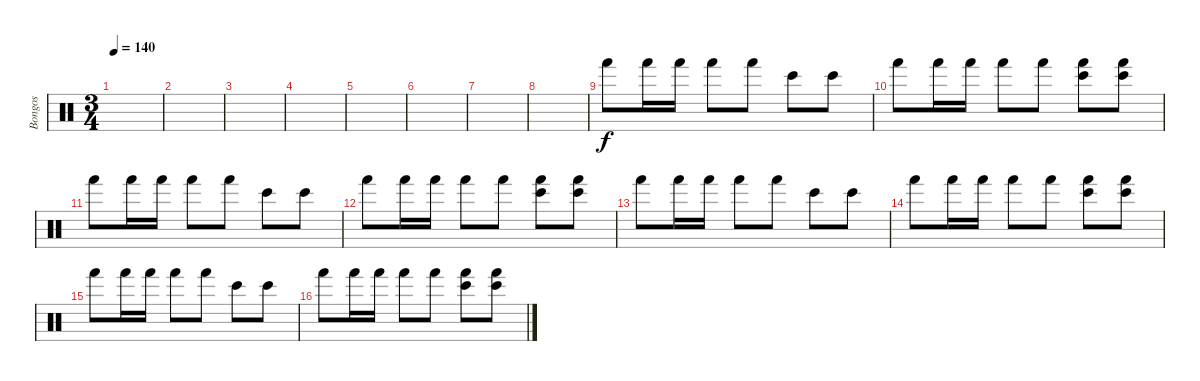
\track ("Bongos" "Bongos") {instrument percussion}
\staff {score}
\articulation defaults
\ts (3 4)
\tempo 140
\clef neutral
\ks c
|
|
|
|
|
|
|
|
"Hand (hit)".8 "Hand (hit)".16 "Hand (hit)".16 "Hand (hit)".8 "Hand (hit)".8 "Bongo High (hit)".8 "Bongo High (hit)".8 |
"Hand (hit)".8 "Hand (hit)".16 "Hand (hit)".16 "Hand (hit)".8 "Hand (hit)".8 ("Bongo High (hit)" "Hand (hit)").8 ("Bongo High (hit)" "Hand (hit)").8 |
"Hand (hit)".8 "Hand (hit)".16 "Hand (hit)".16 "Hand (hit)".8 "Hand (hit)".8 "Bongo High (hit)".8 "Bongo High (hit)".8 |
"Hand (hit)".8 "Hand (hit)".16 "Hand (hit)".16 "Hand (hit)".8 "Hand (hit)".8 ("Bongo High (hit)" "Hand (hit)").8 ("Bongo High (hit)" "Hand (hit)").8 |
"Hand (hit)".8 "Hand (hit)".16 "Hand (hit)".16 "Hand (hit)".8 "Hand (hit)".8 "Bongo High (hit)".8 "Bongo High (hit)".8 |
"Hand (hit)".8 "Hand (hit)".16 "Hand (hit)".16 "Hand (hit)".8 "Hand (hit)".8 ("Bongo High (hit)" "Hand (hit)").8 ("Bongo High (hit)" "Hand (hit)").8 |
"Hand (hit)".8 "Hand (hit)".16 "Hand (hit)".16 "Hand (hit)".8 "Hand (hit)".8 "Bongo High (hit)".8 "Bongo High (hit)".8 |
"Hand (hit)".8 "Hand (hit)".16 "Hand (hit)".16 "Hand (hit)".8 "Hand (hit)".8 ("Bongo High (hit)" "Hand (hit)").8 ("Bongo High (hit)" "Hand (hit)").8
